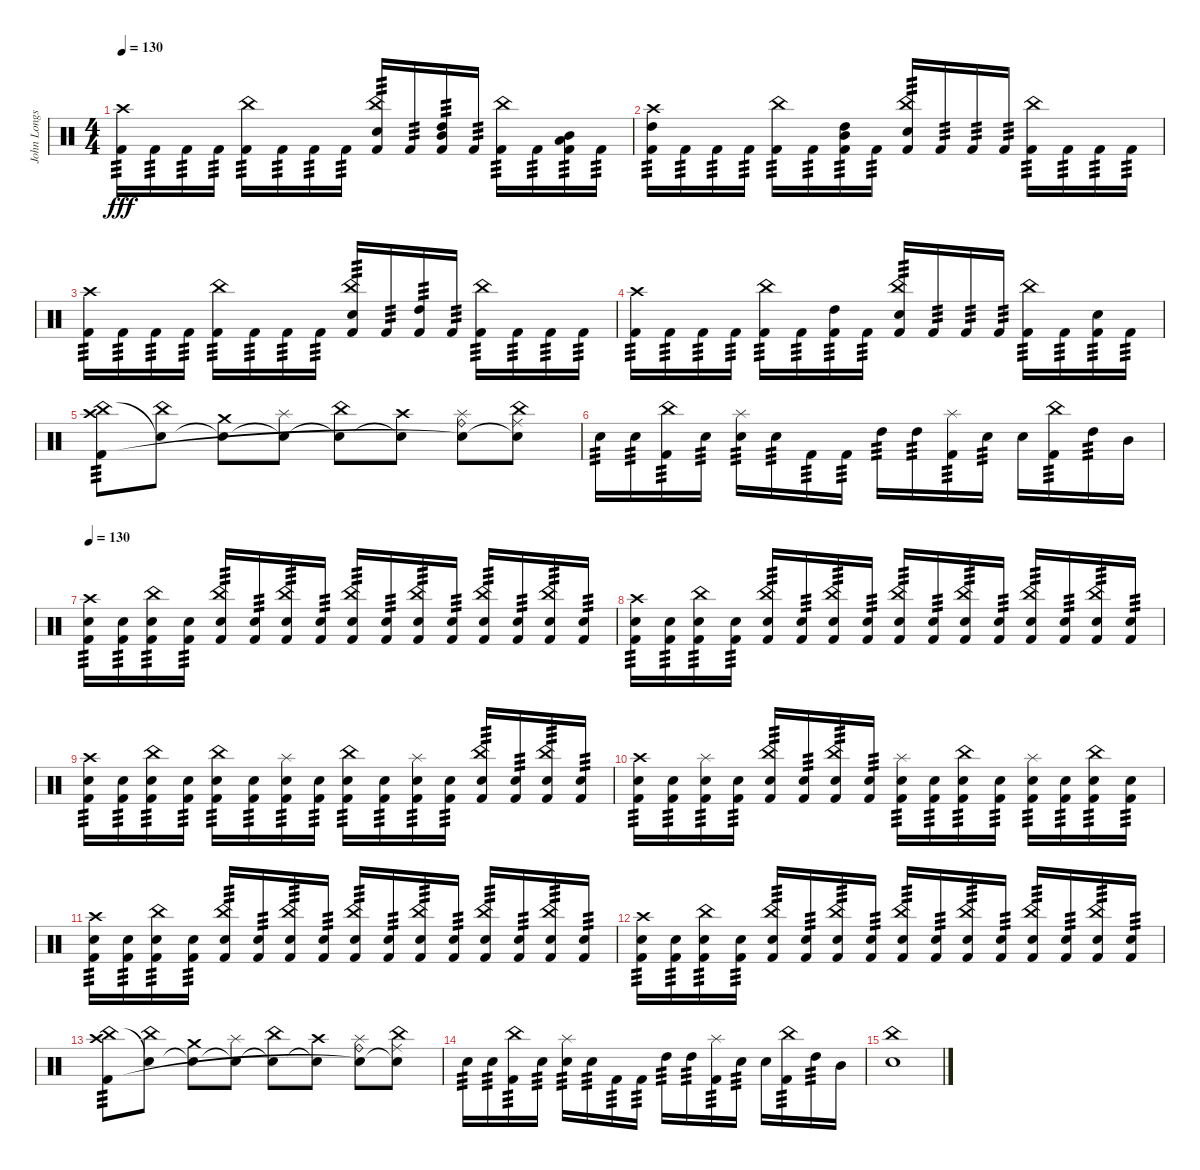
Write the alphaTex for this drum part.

\track ("John Longstreth" "John Longs") {instrument percussion}
\staff {score}
\articulation defaults
\ts (4 4)
\tempo 130
\clef neutral
\ks c
("Crash high (hit)" "Kick (hit) 2").16{tp 3 dy fff} "Kick (hit) 2".16{tp 3} "Kick (hit) 2".16{tp 3} "Kick (hit) 2".16{tp 3} ("China (hit)" "Kick (hit) 2").16{tp 3} "Kick (hit) 2".16{tp 3} "Kick (hit) 2".16{tp 3} "Kick (hit) 2".16{tp 3} ("China (hit)" "Snare (hit) 2" "Kick (hit) 2").16{tp 3} "Kick (hit) 2".16{tp 3} ("High Tom (hit)" "Mid Tom (hit)" "Kick (hit) 2").16{tp 3} "Kick (hit) 2".16{tp 3} ("China (hit)" "Kick (hit) 2").16{tp 3} "Kick (hit) 2".16{tp 3} ("Low Tom (hit)" "Mid Tom (hit)" "Kick (hit) 2").16{tp 3} "Kick (hit) 2".16{tp 3} |
("Crash high (hit)" "High Tom (hit)" "Kick (hit) 2").16{tp 3} "Kick (hit) 2".16{tp 3} "Kick (hit) 2".16{tp 3} "Kick (hit) 2".16{tp 3} ("China (hit)" "Kick (hit) 2").16{tp 3} "Kick (hit) 2".16{tp 3} ("High Tom (hit)" "Mid Tom (hit)" "Kick (hit) 2").16{tp 3} "Kick (hit) 2".16{tp 3} ("China (hit)" "Snare (hit) 2" "Kick (hit) 2").16{tp 3} "Kick (hit) 2".16{tp 3} "Kick (hit) 2".16{tp 3} "Kick (hit) 2".16{tp 3} ("China (hit)" "Kick (hit) 2").16{tp 3} "Kick (hit) 2".16{tp 3} "Kick (hit) 2".16{tp 3} "Kick (hit) 2".16{tp 3} |
("Crash high (hit)" "Kick (hit) 2").16{tp 3} "Kick (hit) 2".16{tp 3} "Kick (hit) 2".16{tp 3} "Kick (hit) 2".16{tp 3} ("China (hit)" "Kick (hit) 2").16{tp 3} "Kick (hit) 2".16{tp 3} "Kick (hit) 2".16{tp 3} "Kick (hit) 2".16{tp 3} ("China (hit)" "Snare (hit) 2" "Kick (hit) 2").16{tp 3} "Kick (hit) 2".16{tp 3} ("High Tom (hit)" "Kick (hit) 2").16{tp 3} "Kick (hit) 2".16{tp 3} ("China (hit)" "Kick (hit) 2").16{tp 3} "Kick (hit) 2".16{tp 3} "Kick (hit) 2".16{tp 3} "Kick (hit) 2".16{tp 3} |
("Crash high (hit)" "Kick (hit) 2").16{tp 3} "Kick (hit) 2".16{tp 3} "Kick (hit) 2".16{tp 3} "Kick (hit) 2".16{tp 3} ("China (hit)" "Kick (hit) 2").16{tp 3} "Kick (hit) 2".16{tp 3} ("High Tom (hit)" "Kick (hit) 2").16{tp 3} "Kick (hit) 2".16{tp 3} ("China (hit)" "Snare (hit) 2" "Kick (hit) 2").16{tp 3} "Kick (hit) 2".16{tp 3} "Kick (hit) 2".16{tp 3} "Kick (hit) 2".16{tp 3} ("China (hit)" "Kick (hit) 2").16{tp 3} "Kick (hit) 2".16{tp 3} ("Snare (hit) 2" "Kick (hit) 2").16{tp 3} "Kick (hit) 2".16{tp 3} |
("Crash high (hit)" "China (hit)" "Kick (hit) 2").8{tp 3} ("China (hit)" "Snare (hit)"{t}).8 ("Crash medium (hit)" "Snare (hit)"{t}).8 ("Splash (hit)" "Snare (hit)"{t}).8 ("China (hit)" "Snare (hit)"{t}).8 ("Crash high (hit)" "Snare (hit)"{t}).8 ("Ride (bell)" "Splash (hit)" "Snare (hit)"{t}).8 ("Ride (middle)" "China (hit)" "Snare (hit)"{t}).8 |
"Snare (hit) 2".16{tp 3} "Snare (hit) 2".16{tp 3} ("China (hit)" "Kick (hit) 2").16{tp 3} "Snare (hit) 2".16{tp 3} ("Splash (hit)" "Snare (hit) 2").16{tp 3} "Snare (hit) 2".16{tp 3} "Kick (hit) 2".16{tp 3} "Kick (hit) 2".16{tp 3} "High Tom (hit)".16{tp 3} "High Tom (hit)".16{tp 3} ("Splash (hit)" "Kick (hit) 2").16{tp 3} "Snare (hit) 2".16{tp 3} "Snare (hit) 2".16 ("China (hit)" "Kick (hit) 2").16{tp 3} "High Tom (hit)".16{tp 3} "Mid Tom (hit)".16 |
\tempo 130
("Crash high (hit)" "Snare (hit) 2" "Kick (hit) 2").16{tp 3} ("Snare (hit) 2" "Kick (hit) 2").16{tp 3} ("China (hit)" "Snare (hit) 2" "Kick (hit) 2").16{tp 3} ("Snare (hit) 2" "Kick (hit) 2").16{tp 3} ("China (hit)" "Snare (hit) 2" "Kick (hit) 2").16{tp 3} ("Snare (hit) 2" "Kick (hit) 2").16{tp 3} ("China (hit)" "Snare (hit) 2" "Kick (hit) 2").16{tp 3} ("Snare (hit) 2" "Kick (hit) 2").16{tp 3} ("China (hit)" "Snare (hit) 2" "Kick (hit) 2").16{tp 3} ("Snare (hit) 2" "Kick (hit) 2").16{tp 3} ("China (hit)" "Snare (hit) 2" "Kick (hit) 2").16{tp 3} ("Snare (hit) 2" "Kick (hit) 2").16{tp 3} ("China (hit)" "Snare (hit) 2" "Kick (hit) 2").16{tp 3} ("Snare (hit) 2" "Kick (hit) 2").16{tp 3} ("China (hit)" "Snare (hit) 2" "Kick (hit) 2").16{tp 3} ("Snare (hit) 2" "Kick (hit) 2").16{tp 3} |
("Crash high (hit)" "Snare (hit) 2" "Kick (hit) 2").16{tp 3} ("Snare (hit) 2" "Kick (hit) 2").16{tp 3} ("China (hit)" "Snare (hit) 2" "Kick (hit) 2").16{tp 3} ("Snare (hit) 2" "Kick (hit) 2").16{tp 3} ("China (hit)" "Snare (hit) 2" "Kick (hit) 2").16{tp 3} ("Snare (hit) 2" "Kick (hit) 2").16{tp 3} ("China (hit)" "Snare (hit) 2" "Kick (hit) 2").16{tp 3} ("Snare (hit) 2" "Kick (hit) 2").16{tp 3} ("China (hit)" "Snare (hit) 2" "Kick (hit) 2").16{tp 3} ("Snare (hit) 2" "Kick (hit) 2").16{tp 3} ("China (hit)" "Snare (hit) 2" "Kick (hit) 2").16{tp 3} ("Snare (hit) 2" "Kick (hit) 2").16{tp 3} ("China (hit)" "Snare (hit) 2" "Kick (hit) 2").16{tp 3} ("Snare (hit) 2" "Kick (hit) 2").16{tp 3} ("China (hit)" "Snare (hit) 2" "Kick (hit) 2").16{tp 3} ("Snare (hit) 2" "Kick (hit) 2").16{tp 3} |
("Crash high (hit)" "Snare (hit) 2" "Kick (hit) 2").16{tp 3} ("Snare (hit) 2" "Kick (hit) 2").16{tp 3} ("China (hit)" "Snare (hit) 2" "Kick (hit) 2").16{tp 3} ("Snare (hit) 2" "Kick (hit) 2").16{tp 3} ("China (hit)" "Snare (hit) 2" "Kick (hit) 2").16{tp 3} ("Snare (hit) 2" "Kick (hit) 2").16{tp 3} ("Splash (hit)" "Snare (hit) 2" "Kick (hit) 2").16{tp 3} ("Snare (hit) 2" "Kick (hit) 2").16{tp 3} ("China (hit)" "Snare (hit) 2" "Kick (hit) 2").16{tp 3} ("Snare (hit) 2" "Kick (hit) 2").16{tp 3} ("Splash (hit)" "Snare (hit) 2" "Kick (hit) 2").16{tp 3} ("Snare (hit) 2" "Kick (hit) 2").16{tp 3} ("China (hit)" "Snare (hit) 2" "Kick (hit) 2").16{tp 3} ("Snare (hit) 2" "Kick (hit) 2").16{tp 3} ("China (hit)" "Snare (hit) 2" "Kick (hit) 2").16{tp 3} ("Snare (hit) 2" "Kick (hit) 2").16{tp 3} |
("Crash high (hit)" "Snare (hit) 2" "Kick (hit) 2").16{tp 3} ("Snare (hit) 2" "Kick (hit) 2").16{tp 3} ("Splash (hit)" "Snare (hit) 2" "Kick (hit) 2").16{tp 3} ("Snare (hit) 2" "Kick (hit) 2").16{tp 3} ("China (hit)" "Snare (hit) 2" "Kick (hit) 2").16{tp 3} ("Snare (hit) 2" "Kick (hit) 2").16{tp 3} ("China (hit)" "Snare (hit) 2" "Kick (hit) 2").16{tp 3} ("Snare (hit) 2" "Kick (hit) 2").16{tp 3} ("Splash (hit)" "Snare (hit) 2" "Kick (hit) 2").16{tp 3} ("Snare (hit) 2" "Kick (hit) 2").16{tp 3} ("China (hit)" "Snare (hit) 2" "Kick (hit) 2").16{tp 3} ("Snare (hit) 2" "Kick (hit) 2").16{tp 3} ("Splash (hit)" "Snare (hit) 2" "Kick (hit) 2").16{tp 3} ("Snare (hit) 2" "Kick (hit) 2").16{tp 3} ("China (hit)" "Snare (hit) 2" "Kick (hit) 2").16{tp 3} ("Snare (hit) 2" "Kick (hit) 2").16{tp 3} |
("Crash high (hit)" "Snare (hit) 2" "Kick (hit) 2").16{tp 3} ("Snare (hit) 2" "Kick (hit) 2").16{tp 3} ("China (hit)" "Snare (hit) 2" "Kick (hit) 2").16{tp 3} ("Snare (hit) 2" "Kick (hit) 2").16{tp 3} ("China (hit)" "Snare (hit) 2" "Kick (hit) 2").16{tp 3} ("Snare (hit) 2" "Kick (hit) 2").16{tp 3} ("China (hit)" "Snare (hit) 2" "Kick (hit) 2").16{tp 3} ("Snare (hit) 2" "Kick (hit) 2").16{tp 3} ("China (hit)" "Snare (hit) 2" "Kick (hit) 2").16{tp 3} ("Snare (hit) 2" "Kick (hit) 2").16{tp 3} ("China (hit)" "Snare (hit) 2" "Kick (hit) 2").16{tp 3} ("Snare (hit) 2" "Kick (hit) 2").16{tp 3} ("China (hit)" "Snare (hit) 2" "Kick (hit) 2").16{tp 3} ("Snare (hit) 2" "Kick (hit) 2").16{tp 3} ("China (hit)" "Snare (hit) 2" "Kick (hit) 2").16{tp 3} ("Snare (hit) 2" "Kick (hit) 2").16{tp 3} |
("Crash high (hit)" "Snare (hit) 2" "Kick (hit) 2").16{tp 3} ("Snare (hit) 2" "Kick (hit) 2").16{tp 3} ("China (hit)" "Snare (hit) 2" "Kick (hit) 2").16{tp 3} ("Snare (hit) 2" "Kick (hit) 2").16{tp 3} ("China (hit)" "Snare (hit) 2" "Kick (hit) 2").16{tp 3} ("Snare (hit) 2" "Kick (hit) 2").16{tp 3} ("China (hit)" "Snare (hit) 2" "Kick (hit) 2").16{tp 3} ("Snare (hit) 2" "Kick (hit) 2").16{tp 3} ("China (hit)" "Snare (hit) 2" "Kick (hit) 2").16{tp 3} ("Snare (hit) 2" "Kick (hit) 2").16{tp 3} ("China (hit)" "Snare (hit) 2" "Kick (hit) 2").16{tp 3} ("Snare (hit) 2" "Kick (hit) 2").16{tp 3} ("China (hit)" "Snare (hit) 2" "Kick (hit) 2").16{tp 3} ("Snare (hit) 2" "Kick (hit) 2").16{tp 3} ("China (hit)" "Snare (hit) 2" "Kick (hit) 2").16{tp 3} ("Snare (hit) 2" "Kick (hit) 2").16{tp 3} |
("Crash high (hit)" "China (hit)" "Kick (hit) 2").8{tp 3} ("China (hit)" "Snare (hit)"{t}).8 ("Crash medium (hit)" "Snare (hit)"{t}).8 ("Splash (hit)" "Snare (hit)"{t}).8 ("China (hit)" "Snare (hit)"{t}).8 ("Crash high (hit)" "Snare (hit)"{t}).8 ("Ride (bell)" "Splash (hit)" "Snare (hit)"{t}).8 ("Ride (middle)" "China (hit)" "Snare (hit)"{t}).8 |
"Snare (hit) 2".16{tp 3} "Snare (hit) 2".16{tp 3} ("China (hit)" "Kick (hit) 2").16{tp 3} "Snare (hit) 2".16{tp 3} ("Splash (hit)" "Snare (hit) 2").16{tp 3} "Snare (hit) 2".16{tp 3} "Kick (hit) 2".16{tp 3} "Kick (hit) 2".16{tp 3} "High Tom (hit)".16{tp 3} "High Tom (hit)".16{tp 3} ("Splash (hit)" "Kick (hit) 2").16{tp 3} "Snare (hit) 2".16{tp 3} "Snare (hit) 2".16 ("China (hit)" "Kick (hit) 2").16{tp 3} "High Tom (hit)".16{tp 3} "Mid Tom (hit)".16 |
("China (hit)" "Snare (hit) 2").1
